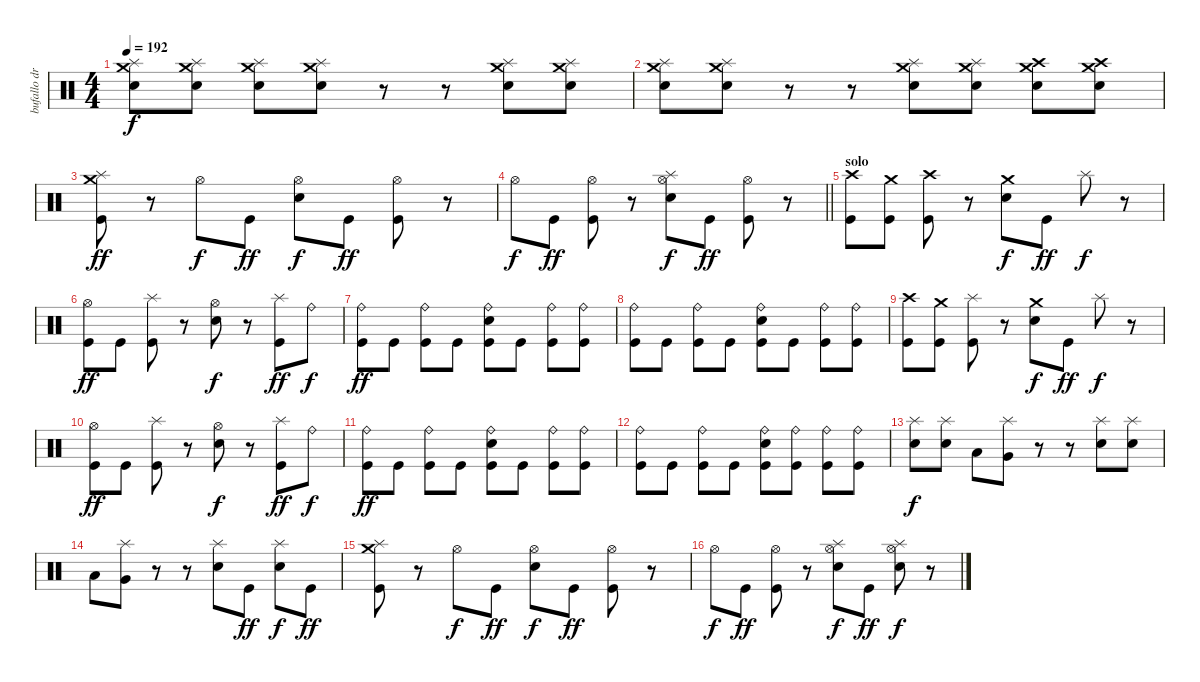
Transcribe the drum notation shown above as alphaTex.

\track ("bufallo drums" "bufallo dr") {instrument percussion}
\staff {score}
\articulation defaults
\ts (4 4)
\tempo 192
\clef neutral
\ks c
("Crash medium (hit)" "Splash (hit)" "Electric Snare (hit)").8{dy f} ("Crash medium (hit)" "Splash (hit)" "Electric Snare (hit)").8 ("Crash medium (hit)" "Splash (hit)" "Electric Snare (hit)").8 ("Crash medium (hit)" "Splash (hit)" "Electric Snare (hit)").8 r.8 r.8 ("Crash medium (hit)" "Splash (hit)" "Electric Snare (hit)").8 ("Crash medium (hit)" "Splash (hit)" "Electric Snare (hit)").8 |
("Crash medium (hit)" "Splash (hit)" "Electric Snare (hit)").8 ("Crash medium (hit)" "Splash (hit)" "Electric Snare (hit)").8 r.8 r.8 ("Crash medium (hit)" "Splash (hit)" "Electric Snare (hit)").8 ("Crash medium (hit)" "Splash (hit)" "Electric Snare (hit)").8 ("Crash high (hit)" "Crash medium (hit)" "Electric Snare (hit)").8 ("Crash high (hit)" "Crash medium (hit)" "Electric Snare (hit)").8 |
("Crash medium (hit)" "Splash (hit)" "Kick (hit)").8{dy ff} r.8 "Hi-Hat (open)".8{dy f} "Kick (hit)".8{dy ff} ("Hi-Hat (open)" "Electric Snare (hit)").8{dy f} "Kick (hit)".8{dy ff} ("Hi-Hat (open)" "Kick (hit)").8 r.8 |
\barLineRight lightlight "Hi-Hat (open)".8{dy f} "Kick (hit)".8{dy ff}
("Hi-Hat (open)" "Kick (hit)").8 r.8 ("Hi-Hat (open)" "Splash (hit)" "Electric Snare (hit)").8{dy f} "Kick (hit)".8{dy ff} ("Hi-Hat (open)" "Kick (hit)").8 r.8 |
\section ("" "solo")
("Crash high (hit)" "Kick (hit)").8 ("Crash medium (hit)" "Kick (hit)").8 ("Crash high (hit)" "Kick (hit)").8 r.8 ("Crash medium (hit)" "Electric Snare (hit)").8{dy f} "Kick (hit)".8{dy ff} "Splash (hit)".8{dy f} r.8 |
("Hi-Hat (open)" "Kick (hit)").8{dy ff} "Kick (hit)".8 ("Splash (hit)" "Kick (hit)").8 r.8 ("Hi-Hat (open)" "Electric Snare (hit)").8{dy f} r.8 ("Splash (hit)" "Kick (hit)").8{dy ff} "Ride (bell)".8{dy f} |
("Ride (bell)" "Kick (hit)").8{dy ff} "Kick (hit)".8 ("Ride (bell)" "Kick (hit)").8 "Kick (hit)".8 ("Ride (bell)" "Electric Snare (hit)" "Kick (hit)").8 "Kick (hit)".8 ("Ride (bell)" "Kick (hit)").8 ("Ride (bell)" "Kick (hit)").8 |
("Ride (bell)" "Kick (hit)").8 "Kick (hit)".8 ("Ride (bell)" "Kick (hit)").8 "Kick (hit)".8 ("Ride (bell)" "Electric Snare (hit)" "Kick (hit)").8 "Kick (hit)".8 ("Ride (bell)" "Kick (hit)").8 ("Ride (bell)" "Kick (hit)").8 |
("Crash high (hit)" "Kick (hit)").8 ("Crash medium (hit)" "Kick (hit)").8 ("Splash (hit)" "Kick (hit)").8 r.8 ("Crash medium (hit)" "Electric Snare (hit)").8{dy f} "Kick (hit)".8{dy ff} "Splash (hit)".8{dy f} r.8 |
("Hi-Hat (open)" "Kick (hit)").8{dy ff} "Kick (hit)".8 ("Splash (hit)" "Kick (hit)").8 r.8 ("Hi-Hat (open)" "Electric Snare (hit)").8{dy f} r.8 ("Splash (hit)" "Kick (hit)").8{dy ff} "Ride (bell)".8{dy f} |
("Ride (bell)" "Kick (hit)").8{dy ff} "Kick (hit)".8 ("Ride (bell)" "Kick (hit)").8 "Kick (hit)".8 ("Ride (bell)" "Electric Snare (hit)" "Kick (hit)").8 "Kick (hit)".8 ("Ride (bell)" "Kick (hit)").8 ("Ride (bell)" "Kick (hit)").8 |
("Ride (bell)" "Kick (hit)").8 "Kick (hit)".8 ("Ride (bell)" "Kick (hit)").8 "Kick (hit)".8 ("Ride (bell)" "Electric Snare (hit)" "Kick (hit)").8 ("Ride (bell)" "Kick (hit)").8 ("Ride (bell)" "Kick (hit)").8 ("Ride (bell)" "Kick (hit)").8 |
("Splash (hit)" "Electric Snare (hit)").8{dy f} ("Splash (hit)" "Electric Snare (hit)").8 "Low Tom (hit)".8 ("Splash (hit)" "Very Low Tom (hit)").8 r.8 r.8 ("Splash (hit)" "Electric Snare (hit)").8 ("Splash (hit)" "Electric Snare (hit)").8 |
"Low Tom (hit)".8 ("Splash (hit)" "Very Low Tom (hit)").8 r.8 r.8 ("Splash (hit)" "Electric Snare (hit)").8 "Kick (hit)".8{dy ff} ("Splash (hit)" "Electric Snare (hit)").8{dy f} "Kick (hit)".8{dy ff} |
("Crash medium (hit)" "Splash (hit)" "Kick (hit)").8 r.8 "Hi-Hat (open)".8{dy f} "Kick (hit)".8{dy ff} ("Hi-Hat (open)" "Electric Snare (hit)").8{dy f} "Kick (hit)".8{dy ff} ("Hi-Hat (open)" "Kick (hit)").8 r.8 |
"Hi-Hat (open)".8{dy f} "Kick (hit)".8{dy ff} ("Hi-Hat (open)" "Kick (hit)").8 r.8 ("Hi-Hat (open)" "Splash (hit)" "Electric Snare (hit)").8{dy f} "Kick (hit)".8{dy ff} ("Hi-Hat (open)" "Splash (hit)" "Electric Snare (hit)").8{dy f} r.8
